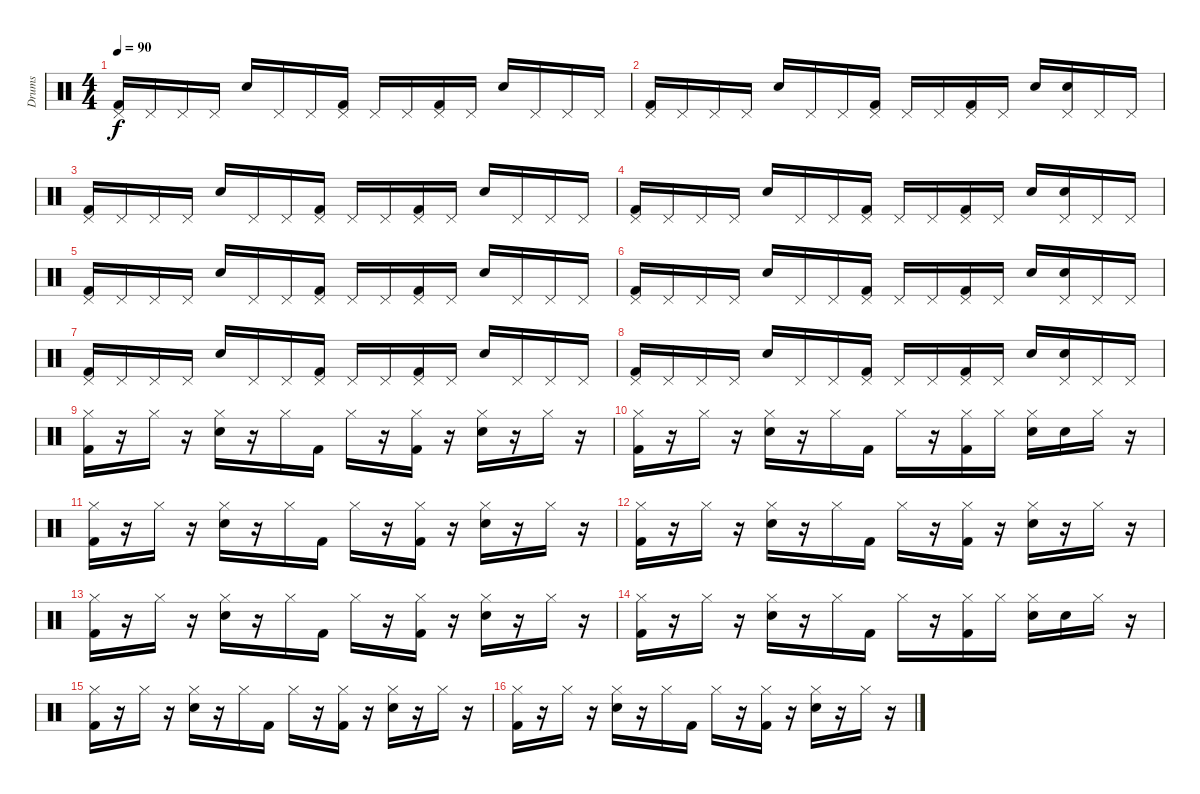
\track ("Drums" "Drums") {instrument percussion}
\staff {score}
\articulation defaults
\ts (4 4)
\tempo 90
\clef neutral
\ks c
("Pedal Hi-Hat (hit)" "Kick (hit) 2").16{dy f} "Pedal Hi-Hat (hit)".16 "Pedal Hi-Hat (hit)".16 "Pedal Hi-Hat (hit)".16 "Electric Snare (hit)".16 "Pedal Hi-Hat (hit)".16 "Pedal Hi-Hat (hit)".16 ("Pedal Hi-Hat (hit)" "Kick (hit) 2").16 "Pedal Hi-Hat (hit)".16 "Pedal Hi-Hat (hit)".16 ("Pedal Hi-Hat (hit)" "Kick (hit) 2").16 "Pedal Hi-Hat (hit)".16 "Electric Snare (hit)".16 "Pedal Hi-Hat (hit)".16 "Pedal Hi-Hat (hit)".16 "Pedal Hi-Hat (hit)".16 |
("Pedal Hi-Hat (hit)" "Kick (hit) 2").16 "Pedal Hi-Hat (hit)".16 "Pedal Hi-Hat (hit)".16 "Pedal Hi-Hat (hit)".16 "Electric Snare (hit)".16 "Pedal Hi-Hat (hit)".16 "Pedal Hi-Hat (hit)".16 ("Pedal Hi-Hat (hit)" "Kick (hit) 2").16 "Pedal Hi-Hat (hit)".16 "Pedal Hi-Hat (hit)".16 ("Pedal Hi-Hat (hit)" "Kick (hit) 2").16 "Pedal Hi-Hat (hit)".16 "Electric Snare (hit)".16 ("Pedal Hi-Hat (hit)" "Electric Snare (hit)").16 "Pedal Hi-Hat (hit)".16 "Pedal Hi-Hat (hit)".16 |
("Pedal Hi-Hat (hit)" "Kick (hit) 2").16 "Pedal Hi-Hat (hit)".16 "Pedal Hi-Hat (hit)".16 "Pedal Hi-Hat (hit)".16 "Electric Snare (hit)".16 "Pedal Hi-Hat (hit)".16 "Pedal Hi-Hat (hit)".16 ("Pedal Hi-Hat (hit)" "Kick (hit) 2").16 "Pedal Hi-Hat (hit)".16 "Pedal Hi-Hat (hit)".16 ("Pedal Hi-Hat (hit)" "Kick (hit) 2").16 "Pedal Hi-Hat (hit)".16 "Electric Snare (hit)".16 "Pedal Hi-Hat (hit)".16 "Pedal Hi-Hat (hit)".16 "Pedal Hi-Hat (hit)".16 |
("Pedal Hi-Hat (hit)" "Kick (hit) 2").16 "Pedal Hi-Hat (hit)".16 "Pedal Hi-Hat (hit)".16 "Pedal Hi-Hat (hit)".16 "Electric Snare (hit)".16 "Pedal Hi-Hat (hit)".16 "Pedal Hi-Hat (hit)".16 ("Pedal Hi-Hat (hit)" "Kick (hit) 2").16 "Pedal Hi-Hat (hit)".16 "Pedal Hi-Hat (hit)".16 ("Pedal Hi-Hat (hit)" "Kick (hit) 2").16 "Pedal Hi-Hat (hit)".16 "Electric Snare (hit)".16 ("Pedal Hi-Hat (hit)" "Electric Snare (hit)").16 "Pedal Hi-Hat (hit)".16 "Pedal Hi-Hat (hit)".16 |
("Pedal Hi-Hat (hit)" "Kick (hit) 2").16 "Pedal Hi-Hat (hit)".16 "Pedal Hi-Hat (hit)".16 "Pedal Hi-Hat (hit)".16 "Electric Snare (hit)".16 "Pedal Hi-Hat (hit)".16 "Pedal Hi-Hat (hit)".16 ("Pedal Hi-Hat (hit)" "Kick (hit) 2").16 "Pedal Hi-Hat (hit)".16 "Pedal Hi-Hat (hit)".16 ("Pedal Hi-Hat (hit)" "Kick (hit) 2").16 "Pedal Hi-Hat (hit)".16 "Electric Snare (hit)".16 "Pedal Hi-Hat (hit)".16 "Pedal Hi-Hat (hit)".16 "Pedal Hi-Hat (hit)".16 |
("Pedal Hi-Hat (hit)" "Kick (hit) 2").16 "Pedal Hi-Hat (hit)".16 "Pedal Hi-Hat (hit)".16 "Pedal Hi-Hat (hit)".16 "Electric Snare (hit)".16 "Pedal Hi-Hat (hit)".16 "Pedal Hi-Hat (hit)".16 ("Pedal Hi-Hat (hit)" "Kick (hit) 2").16 "Pedal Hi-Hat (hit)".16 "Pedal Hi-Hat (hit)".16 ("Pedal Hi-Hat (hit)" "Kick (hit) 2").16 "Pedal Hi-Hat (hit)".16 "Electric Snare (hit)".16 ("Pedal Hi-Hat (hit)" "Electric Snare (hit)").16 "Pedal Hi-Hat (hit)".16 "Pedal Hi-Hat (hit)".16 |
("Pedal Hi-Hat (hit)" "Kick (hit) 2").16 "Pedal Hi-Hat (hit)".16 "Pedal Hi-Hat (hit)".16 "Pedal Hi-Hat (hit)".16 "Electric Snare (hit)".16 "Pedal Hi-Hat (hit)".16 "Pedal Hi-Hat (hit)".16 ("Pedal Hi-Hat (hit)" "Kick (hit) 2").16 "Pedal Hi-Hat (hit)".16 "Pedal Hi-Hat (hit)".16 ("Pedal Hi-Hat (hit)" "Kick (hit) 2").16 "Pedal Hi-Hat (hit)".16 "Electric Snare (hit)".16 "Pedal Hi-Hat (hit)".16 "Pedal Hi-Hat (hit)".16 "Pedal Hi-Hat (hit)".16 |
("Pedal Hi-Hat (hit)" "Kick (hit) 2").16 "Pedal Hi-Hat (hit)".16 "Pedal Hi-Hat (hit)".16 "Pedal Hi-Hat (hit)".16 "Electric Snare (hit)".16 "Pedal Hi-Hat (hit)".16 "Pedal Hi-Hat (hit)".16 ("Pedal Hi-Hat (hit)" "Kick (hit) 2").16 "Pedal Hi-Hat (hit)".16 "Pedal Hi-Hat (hit)".16 ("Pedal Hi-Hat (hit)" "Kick (hit) 2").16 "Pedal Hi-Hat (hit)".16 "Electric Snare (hit)".16 ("Pedal Hi-Hat (hit)" "Electric Snare (hit)").16 "Pedal Hi-Hat (hit)".16 "Pedal Hi-Hat (hit)".16 |
("Hi-Hat (closed)" "Kick (hit) 2").16 r.16 "Hi-Hat (closed)".16 r.16 ("Hi-Hat (closed)" "Electric Snare (hit)").16 r.16 "Hi-Hat (closed)".16 "Kick (hit) 2".16 "Hi-Hat (closed)".16 r.16 ("Hi-Hat (closed)" "Kick (hit) 2").16 r.16 ("Hi-Hat (closed)" "Electric Snare (hit)").16 r.16 "Hi-Hat (closed)".16 r.16 |
("Hi-Hat (closed)" "Kick (hit) 2").16 r.16 "Hi-Hat (closed)".16 r.16 ("Hi-Hat (closed)" "Electric Snare (hit)").16 r.16 "Hi-Hat (closed)".16 "Kick (hit) 2".16 "Hi-Hat (closed)".16 r.16 ("Hi-Hat (closed)" "Kick (hit) 2").16 "Hi-Hat (closed)".16 ("Hi-Hat (closed)" "Electric Snare (hit)").16 "Electric Snare (hit)".16 "Hi-Hat (closed)".16 r.16 |
("Hi-Hat (closed)" "Kick (hit) 2").16 r.16 "Hi-Hat (closed)".16 r.16 ("Hi-Hat (closed)" "Electric Snare (hit)").16 r.16 "Hi-Hat (closed)".16 "Kick (hit) 2".16 "Hi-Hat (closed)".16 r.16 ("Hi-Hat (closed)" "Kick (hit) 2").16 r.16 ("Hi-Hat (closed)" "Electric Snare (hit)").16 r.16 "Hi-Hat (closed)".16 r.16 |
("Hi-Hat (closed)" "Kick (hit) 2").16 r.16 "Hi-Hat (closed)".16 r.16 ("Hi-Hat (closed)" "Electric Snare (hit)").16 r.16 "Hi-Hat (closed)".16 "Kick (hit) 2".16 "Hi-Hat (closed)".16 r.16 ("Hi-Hat (closed)" "Kick (hit) 2").16 r.16 ("Hi-Hat (closed)" "Electric Snare (hit)").16 r.16 "Hi-Hat (closed)".16 r.16 |
("Hi-Hat (closed)" "Kick (hit) 2").16 r.16 "Hi-Hat (closed)".16 r.16 ("Hi-Hat (closed)" "Electric Snare (hit)").16 r.16 "Hi-Hat (closed)".16 "Kick (hit) 2".16 "Hi-Hat (closed)".16 r.16 ("Hi-Hat (closed)" "Kick (hit) 2").16 r.16 ("Hi-Hat (closed)" "Electric Snare (hit)").16 r.16 "Hi-Hat (closed)".16 r.16 |
("Hi-Hat (closed)" "Kick (hit) 2").16 r.16 "Hi-Hat (closed)".16 r.16 ("Hi-Hat (closed)" "Electric Snare (hit)").16 r.16 "Hi-Hat (closed)".16 "Kick (hit) 2".16 "Hi-Hat (closed)".16 r.16 ("Hi-Hat (closed)" "Kick (hit) 2").16 "Hi-Hat (closed)".16 ("Hi-Hat (closed)" "Electric Snare (hit)").16 "Electric Snare (hit)".16 "Hi-Hat (closed)".16 r.16 |
("Hi-Hat (closed)" "Kick (hit) 2").16 r.16 "Hi-Hat (closed)".16 r.16 ("Hi-Hat (closed)" "Electric Snare (hit)").16 r.16 "Hi-Hat (closed)".16 "Kick (hit) 2".16 "Hi-Hat (closed)".16 r.16 ("Hi-Hat (closed)" "Kick (hit) 2").16 r.16 ("Hi-Hat (closed)" "Electric Snare (hit)").16 r.16 "Hi-Hat (closed)".16 r.16 |
("Hi-Hat (closed)" "Kick (hit) 2").16 r.16 "Hi-Hat (closed)".16 r.16 ("Hi-Hat (closed)" "Electric Snare (hit)").16 r.16 "Hi-Hat (closed)".16 "Kick (hit) 2".16 "Hi-Hat (closed)".16 r.16 ("Hi-Hat (closed)" "Kick (hit) 2").16 r.16 ("Hi-Hat (closed)" "Electric Snare (hit)").16 r.16 "Hi-Hat (closed)".16 r.16
